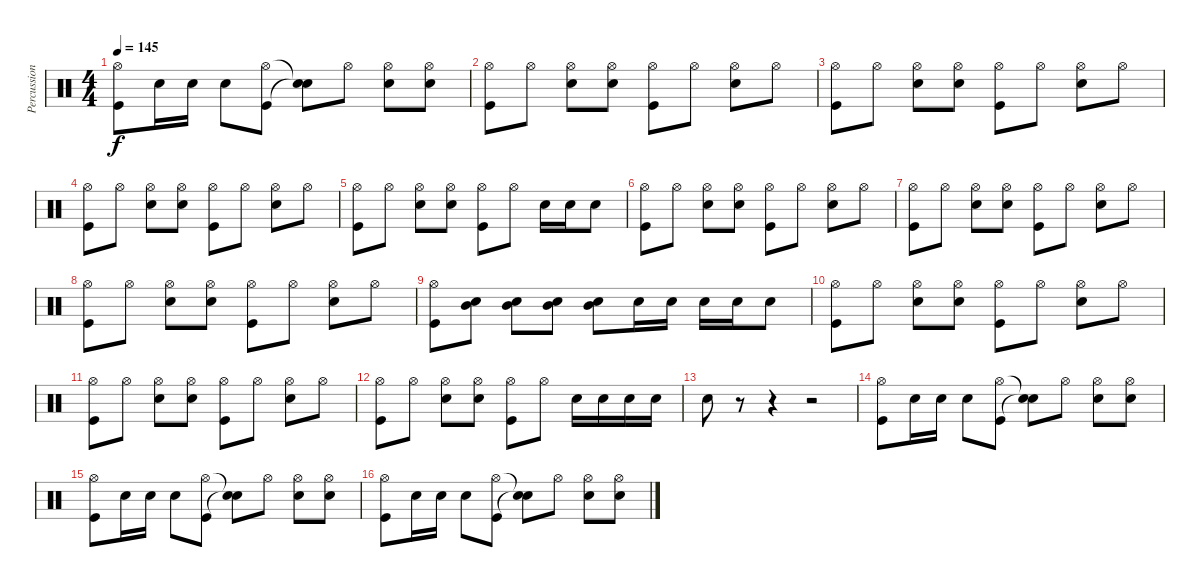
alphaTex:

\track ("Percussion" "Percussion") {instrument percussion}
\staff {score}
\articulation defaults
\ts (4 4)
\tempo 145
\clef neutral
\ks c
("Hi-Hat (open)" "Kick (hit)").8{dy f} "Snare (hit) 2".16 "Snare (hit) 2".16 "Snare (hit) 2".8 ("Hi-Hat (open)" "Kick (hit)").8 ("Snare (hit)"{t} "Snare (hit)"{t}).8 "Hi-Hat (open)".8 ("Hi-Hat (open)" "Snare (hit) 2").8 ("Hi-Hat (open)" "Snare (hit) 2").8 |
("Hi-Hat (open)" "Kick (hit)").8 "Hi-Hat (open)".8 ("Hi-Hat (open)" "Snare (hit) 2").8 ("Hi-Hat (open)" "Snare (hit) 2").8 ("Hi-Hat (open)" "Kick (hit)").8 "Hi-Hat (open)".8 ("Hi-Hat (open)" "Snare (hit) 2").8 "Hi-Hat (open)".8 |
("Hi-Hat (open)" "Kick (hit)").8 "Hi-Hat (open)".8 ("Hi-Hat (open)" "Snare (hit) 2").8 ("Hi-Hat (open)" "Snare (hit) 2").8 ("Hi-Hat (open)" "Kick (hit)").8 "Hi-Hat (open)".8 ("Hi-Hat (open)" "Snare (hit) 2").8 "Hi-Hat (open)".8 |
("Hi-Hat (open)" "Kick (hit)").8 "Hi-Hat (open)".8 ("Hi-Hat (open)" "Snare (hit) 2").8 ("Hi-Hat (open)" "Snare (hit) 2").8 ("Hi-Hat (open)" "Kick (hit)").8 "Hi-Hat (open)".8 ("Hi-Hat (open)" "Snare (hit) 2").8 "Hi-Hat (open)".8 |
("Hi-Hat (open)" "Kick (hit)").8 "Hi-Hat (open)".8 ("Hi-Hat (open)" "Snare (hit) 2").8 ("Hi-Hat (open)" "Snare (hit) 2").8 ("Hi-Hat (open)" "Kick (hit)").8 "Hi-Hat (open)".8 "Snare (hit) 2".16 "Snare (hit) 2".16 "Snare (hit) 2".8 |
("Hi-Hat (open)" "Kick (hit)").8 "Hi-Hat (open)".8 ("Hi-Hat (open)" "Snare (hit) 2").8 ("Hi-Hat (open)" "Snare (hit) 2").8 ("Hi-Hat (open)" "Kick (hit)").8 "Hi-Hat (open)".8 ("Hi-Hat (open)" "Snare (hit) 2").8 "Hi-Hat (open)".8 |
("Hi-Hat (open)" "Kick (hit)").8 "Hi-Hat (open)".8 ("Hi-Hat (open)" "Snare (hit) 2").8 ("Hi-Hat (open)" "Snare (hit) 2").8 ("Hi-Hat (open)" "Kick (hit)").8 "Hi-Hat (open)".8 ("Hi-Hat (open)" "Snare (hit) 2").8 "Hi-Hat (open)".8 |
("Hi-Hat (open)" "Kick (hit)").8 "Hi-Hat (open)".8 ("Hi-Hat (open)" "Snare (hit) 2").8 ("Hi-Hat (open)" "Snare (hit) 2").8 ("Hi-Hat (open)" "Kick (hit)").8 "Hi-Hat (open)".8 ("Hi-Hat (open)" "Snare (hit) 2").8 "Hi-Hat (open)".8 |
("Hi-Hat (open)" "Kick (hit)").8 ("Snare (hit) 2" "Mid Tom (hit)").8 ("Snare (hit) 2" "Mid Tom (hit)").8 ("Snare (hit) 2" "Mid Tom (hit)").8 ("Snare (hit) 2" "Mid Tom (hit)").8 "Snare (hit) 2".16 "Snare (hit) 2".16 "Snare (hit) 2".16 "Snare (hit) 2".16 "Snare (hit) 2".8 |
("Hi-Hat (open)" "Kick (hit)").8 "Hi-Hat (open)".8 ("Hi-Hat (open)" "Snare (hit) 2").8 ("Hi-Hat (open)" "Snare (hit) 2").8 ("Hi-Hat (open)" "Kick (hit)").8 "Hi-Hat (open)".8 ("Hi-Hat (open)" "Snare (hit) 2").8 "Hi-Hat (open)".8 |
("Hi-Hat (open)" "Kick (hit)").8 "Hi-Hat (open)".8 ("Hi-Hat (open)" "Snare (hit) 2").8 ("Hi-Hat (open)" "Snare (hit) 2").8 ("Hi-Hat (open)" "Kick (hit)").8 "Hi-Hat (open)".8 ("Hi-Hat (open)" "Snare (hit) 2").8 "Hi-Hat (open)".8 |
("Hi-Hat (open)" "Kick (hit)").8 "Hi-Hat (open)".8 ("Hi-Hat (open)" "Snare (hit) 2").8 ("Hi-Hat (open)" "Snare (hit) 2").8 ("Hi-Hat (open)" "Kick (hit)").8 "Hi-Hat (open)".8 "Snare (hit) 2".16 "Snare (hit) 2".16 "Snare (hit) 2".16 "Snare (hit) 2".16 |
"Snare (hit) 2".8 r.8 r.4 r.2 |
("Hi-Hat (open)" "Kick (hit)").8 "Snare (hit) 2".16 "Snare (hit) 2".16 "Snare (hit) 2".8 ("Hi-Hat (open)" "Kick (hit)").8 ("Snare (hit)"{t} "Snare (hit)"{t}).8 "Hi-Hat (open)".8 ("Hi-Hat (open)" "Snare (hit) 2").8 ("Hi-Hat (open)" "Snare (hit) 2").8 |
("Hi-Hat (open)" "Kick (hit)").8 "Snare (hit) 2".16 "Snare (hit) 2".16 "Snare (hit) 2".8 ("Hi-Hat (open)" "Kick (hit)").8 ("Snare (hit)"{t} "Snare (hit)"{t}).8 "Hi-Hat (open)".8 ("Hi-Hat (open)" "Snare (hit) 2").8 ("Hi-Hat (open)" "Snare (hit) 2").8 |
("Hi-Hat (open)" "Kick (hit)").8 "Snare (hit) 2".16 "Snare (hit) 2".16 "Snare (hit) 2".8 ("Hi-Hat (open)" "Kick (hit)").8 ("Snare (hit)"{t} "Snare (hit)"{t}).8 "Hi-Hat (open)".8 ("Hi-Hat (open)" "Snare (hit) 2").8 ("Hi-Hat (open)" "Snare (hit) 2").8
